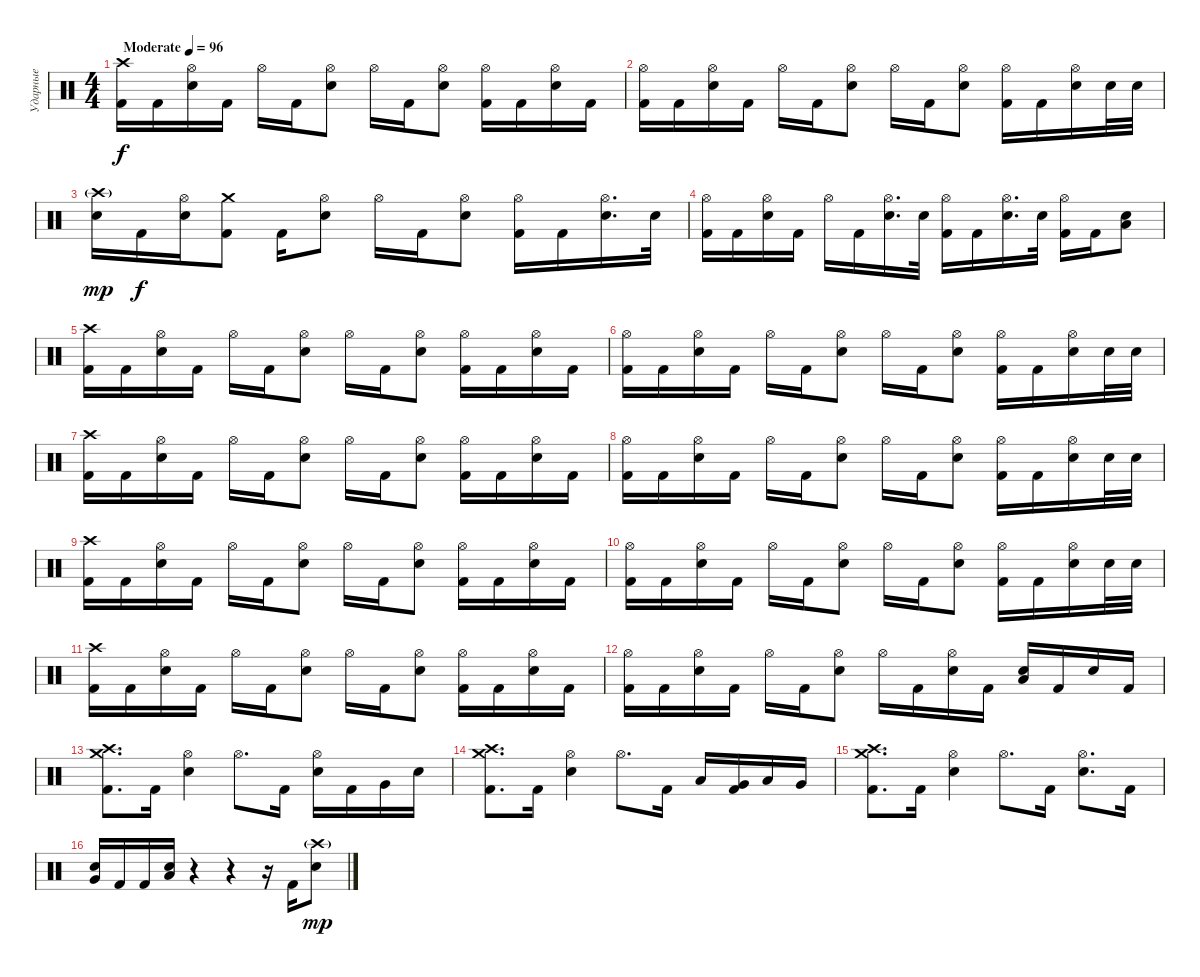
\track ("Ударные" "Ударные") {instrument percussion}
\staff {score}
\articulation defaults
\ts (4 4)
\tempo (96 "Moderate")
\clef neutral
\ks c
("Crash high (hit)" "Kick (hit) 2").16{dy f} "Kick (hit) 2".16 ("Hi-Hat (open)" "Electric Snare (hit)").16 "Kick (hit) 2".16 "Hi-Hat (open)".16 "Kick (hit) 2".16 ("Hi-Hat (open)" "Electric Snare (hit)").8 "Hi-Hat (open)".16 "Kick (hit) 2".16 ("Hi-Hat (open)" "Electric Snare (hit)").8 ("Hi-Hat (open)" "Kick (hit) 2").16 "Kick (hit) 2".16 ("Hi-Hat (open)" "Electric Snare (hit)").16 "Kick (hit) 2".16 |
("Hi-Hat (open)" "Kick (hit) 2").16 "Kick (hit) 2".16 ("Hi-Hat (open)" "Electric Snare (hit)").16 "Kick (hit) 2".16 "Hi-Hat (open)".16 "Kick (hit) 2".16 ("Hi-Hat (open)" "Electric Snare (hit)").8 "Hi-Hat (open)".16 "Kick (hit) 2".16 ("Hi-Hat (open)" "Electric Snare (hit)").8 ("Hi-Hat (open)" "Kick (hit) 2").16 "Kick (hit) 2".16 ("Hi-Hat (open)" "Electric Snare (hit)").16 "Electric Snare (hit)".32 "Electric Snare (hit)".32 |
("Crash high (hit)"{g} "Electric Snare (hit)").16{dy mp} "Kick (hit) 2".16{dy f} ("Hi-Hat (open)" "Electric Snare (hit)").16 ("Crash medium (hit)" "Kick (hit) 2").8 "Kick (hit) 2".16 ("Hi-Hat (open)" "Electric Snare (hit)").8 "Hi-Hat (open)".16 "Kick (hit) 2".16 ("Hi-Hat (open)" "Electric Snare (hit)").8 ("Hi-Hat (open)" "Kick (hit) 2").16 "Kick (hit) 2".16 ("Hi-Hat (open)" "Electric Snare (hit)").16{d} "Electric Snare (hit)".32 |
("Hi-Hat (open)" "Kick (hit) 2").16 "Kick (hit) 2".16 ("Hi-Hat (open)" "Electric Snare (hit)").16 "Kick (hit) 2".16 "Hi-Hat (open)".16 "Kick (hit) 2".16 ("Hi-Hat (open)" "Electric Snare (hit)").16{d} "Electric Snare (hit)".32 ("Hi-Hat (open)" "Kick (hit) 2").16 "Kick (hit) 2".16 ("Hi-Hat (open)" "Electric Snare (hit)").16{d} "Electric Snare (hit)".32 ("Hi-Hat (open)" "Kick (hit) 2").16 "Kick (hit) 2".16 ("Low Floor Tom (hit)" "Electric Snare (hit)").8 |
("Crash high (hit)" "Kick (hit) 2").16 "Kick (hit) 2".16 ("Hi-Hat (open)" "Electric Snare (hit)").16 "Kick (hit) 2".16 "Hi-Hat (open)".16 "Kick (hit) 2".16 ("Hi-Hat (open)" "Electric Snare (hit)").8 "Hi-Hat (open)".16 "Kick (hit) 2".16 ("Hi-Hat (open)" "Electric Snare (hit)").8 ("Hi-Hat (open)" "Kick (hit) 2").16 "Kick (hit) 2".16 ("Hi-Hat (open)" "Electric Snare (hit)").16 "Kick (hit) 2".16 |
("Hi-Hat (open)" "Kick (hit) 2").16 "Kick (hit) 2".16 ("Hi-Hat (open)" "Electric Snare (hit)").16 "Kick (hit) 2".16 "Hi-Hat (open)".16 "Kick (hit) 2".16 ("Hi-Hat (open)" "Electric Snare (hit)").8 "Hi-Hat (open)".16 "Kick (hit) 2".16 ("Hi-Hat (open)" "Electric Snare (hit)").8 ("Hi-Hat (open)" "Kick (hit) 2").16 "Kick (hit) 2".16 ("Hi-Hat (open)" "Electric Snare (hit)").16 "Electric Snare (hit)".32 "Electric Snare (hit)".32 |
("Crash high (hit)" "Kick (hit) 2").16 "Kick (hit) 2".16 ("Hi-Hat (open)" "Electric Snare (hit)").16 "Kick (hit) 2".16 "Hi-Hat (open)".16 "Kick (hit) 2".16 ("Hi-Hat (open)" "Electric Snare (hit)").8 "Hi-Hat (open)".16 "Kick (hit) 2".16 ("Hi-Hat (open)" "Electric Snare (hit)").8 ("Hi-Hat (open)" "Kick (hit) 2").16 "Kick (hit) 2".16 ("Hi-Hat (open)" "Electric Snare (hit)").16 "Kick (hit) 2".16 |
("Hi-Hat (open)" "Kick (hit) 2").16 "Kick (hit) 2".16 ("Hi-Hat (open)" "Electric Snare (hit)").16 "Kick (hit) 2".16 "Hi-Hat (open)".16 "Kick (hit) 2".16 ("Hi-Hat (open)" "Electric Snare (hit)").8 "Hi-Hat (open)".16 "Kick (hit) 2".16 ("Hi-Hat (open)" "Electric Snare (hit)").8 ("Hi-Hat (open)" "Kick (hit) 2").16 "Kick (hit) 2".16 ("Hi-Hat (open)" "Electric Snare (hit)").16 "Electric Snare (hit)".32 "Electric Snare (hit)".32 |
("Crash high (hit)" "Kick (hit) 2").16 "Kick (hit) 2".16 ("Hi-Hat (open)" "Electric Snare (hit)").16 "Kick (hit) 2".16 "Hi-Hat (open)".16 "Kick (hit) 2".16 ("Hi-Hat (open)" "Electric Snare (hit)").8 "Hi-Hat (open)".16 "Kick (hit) 2".16 ("Hi-Hat (open)" "Electric Snare (hit)").8 ("Hi-Hat (open)" "Kick (hit) 2").16 "Kick (hit) 2".16 ("Hi-Hat (open)" "Electric Snare (hit)").16 "Kick (hit) 2".16 |
("Hi-Hat (open)" "Kick (hit) 2").16 "Kick (hit) 2".16 ("Hi-Hat (open)" "Electric Snare (hit)").16 "Kick (hit) 2".16 "Hi-Hat (open)".16 "Kick (hit) 2".16 ("Hi-Hat (open)" "Electric Snare (hit)").8 "Hi-Hat (open)".16 "Kick (hit) 2".16 ("Hi-Hat (open)" "Electric Snare (hit)").8 ("Hi-Hat (open)" "Kick (hit) 2").16 "Kick (hit) 2".16 ("Hi-Hat (open)" "Electric Snare (hit)").16 "Electric Snare (hit)".32 "Electric Snare (hit)".32 |
("Crash high (hit)" "Kick (hit) 2").16 "Kick (hit) 2".16 ("Hi-Hat (open)" "Electric Snare (hit)").16 "Kick (hit) 2".16 "Hi-Hat (open)".16 "Kick (hit) 2".16 ("Hi-Hat (open)" "Electric Snare (hit)").8 "Hi-Hat (open)".16 "Kick (hit) 2".16 ("Hi-Hat (open)" "Electric Snare (hit)").8 ("Hi-Hat (open)" "Kick (hit) 2").16 "Kick (hit) 2".16 ("Hi-Hat (open)" "Electric Snare (hit)").16 "Kick (hit) 2".16 |
("Hi-Hat (open)" "Kick (hit) 2").16 "Kick (hit) 2".16 ("Hi-Hat (open)" "Electric Snare (hit)").16 "Kick (hit) 2".16 "Hi-Hat (open)".16 "Kick (hit) 2".16 ("Hi-Hat (open)" "Electric Snare (hit)").8 "Hi-Hat (open)".16 "Kick (hit) 2".16 ("Hi-Hat (open)" "Electric Snare (hit)").16 "Kick (hit) 2".16 ("Low Tom (hit)" "Electric Snare (hit)").16 "Kick (hit) 2".16 "Electric Snare (hit)".16 "Kick (hit) 2".16 |
("Crash high (hit)" "Crash medium (hit)" "Kick (hit) 2").8{d} "Kick (hit) 2".16 ("Hi-Hat (open)" "Electric Snare (hit)").4 "Hi-Hat (open)".8{d} "Kick (hit) 2".16 ("Hi-Hat (open)" "Electric Snare (hit)").16 "Kick (hit) 2".16 "Very Low Tom (hit)".16 "Electric Snare (hit)".16 |
("Crash high (hit)" "Crash medium (hit)" "Kick (hit) 2").8{d} "Kick (hit) 2".16 ("Hi-Hat (open)" "Electric Snare (hit)").4 "Hi-Hat (open)".8{d} "Kick (hit) 2".16 "Low Tom (hit)".16 ("Very Low Tom (hit)" "Kick (hit) 2").16 "Low Floor Tom (hit)".16 "Very Low Tom (hit)".16 |
("Crash high (hit)" "Crash medium (hit)" "Kick (hit) 2").8{d} "Kick (hit) 2".16 ("Hi-Hat (open)" "Electric Snare (hit)").4 "Hi-Hat (open)".8{d} "Kick (hit) 2".16 ("Hi-Hat (open)" "Electric Snare (hit)").8{d} "Kick (hit) 2".16 |
("Very Low Tom (hit)" "Electric Snare (hit)").16 "Kick (hit) 2".16 "Kick (hit) 2".16 ("Low Floor Tom (hit)" "Electric Snare (hit)").16 r.4 r.4 r.16 "Kick (hit) 2".16 ("Crash high (hit)"{g} "Electric Snare (hit)").8{dy mp}
